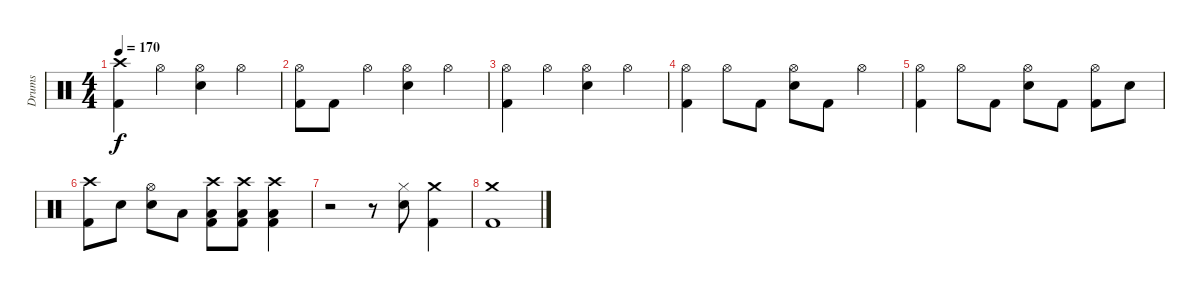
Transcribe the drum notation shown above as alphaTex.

\track ("Drums" "Drums") {instrument percussion}
\staff {score}
\articulation defaults
\ts (4 4)
\tempo 170
\clef neutral
\ks c
("Crash high (hit)" "Kick (hit) 2").4{dy f} "Hi-Hat (open)".4 ("Hi-Hat (open)" "Electric Snare (hit)").4 "Hi-Hat (open)".4 |
("Hi-Hat (open)" "Kick (hit) 2").8 "Kick (hit) 2".8 "Hi-Hat (open)".4 ("Hi-Hat (open)" "Electric Snare (hit)").4 "Hi-Hat (open)".4 |
("Hi-Hat (open)" "Kick (hit) 2").4 "Hi-Hat (open)".4 ("Hi-Hat (open)" "Electric Snare (hit)").4 "Hi-Hat (open)".4 |
("Hi-Hat (open)" "Kick (hit) 2").4 "Hi-Hat (open)".8 "Kick (hit) 2".8 ("Hi-Hat (open)" "Electric Snare (hit)").8 "Kick (hit) 2".8 "Hi-Hat (open)".4 |
("Hi-Hat (open)" "Kick (hit) 2").4 "Hi-Hat (open)".8 "Kick (hit) 2".8 ("Hi-Hat (open)" "Electric Snare (hit)").8 "Kick (hit) 2".8 ("Hi-Hat (open)" "Kick (hit) 2").8 "Electric Snare (hit)".8 |
("Crash high (hit)" "Kick (hit) 2").8 "Electric Snare (hit)".8 ("Hi-Hat (open)" "Electric Snare (hit)").8 "Low Tom (hit)".8 ("Crash high (hit)" "Low Tom (hit)" "Kick (hit) 2").8 ("Crash high (hit)" "Low Tom (hit)" "Kick (hit) 2").8 ("Crash high (hit)" "Low Tom (hit)" "Kick (hit) 2").4 |
r.2 r.8 ("Hi-Hat (closed)" "Electric Snare (hit)").8 ("Crash medium (hit)" "Kick (hit) 2").4 |
("Crash medium (hit)" "Kick (hit) 2").1
